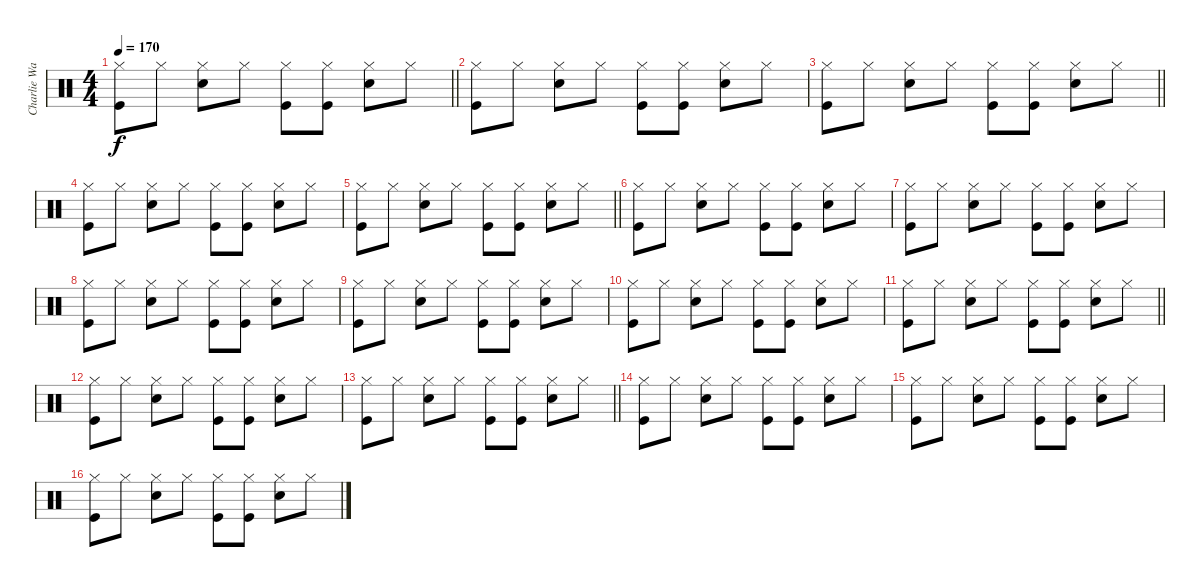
\track ("Charlie Watts" "Charlie Wa") {instrument percussion}
\staff {score}
\articulation defaults
\ts (4 4)
\tempo 170
\clef neutral
\barLineRight lightlight
\ks c
("Hi-Hat (closed)" "Kick (hit)").8{dy f} "Hi-Hat (closed)".8 ("Hi-Hat (closed)" "Snare (hit) 2").8 "Hi-Hat (closed)".8 ("Hi-Hat (closed)" "Kick (hit)").8 ("Hi-Hat (closed)" "Kick (hit)").8 ("Hi-Hat (closed)" "Snare (hit) 2").8 "Hi-Hat (closed)".8 |
("Hi-Hat (closed)" "Kick (hit)").8 "Hi-Hat (closed)".8 ("Hi-Hat (closed)" "Snare (hit) 2").8 "Hi-Hat (closed)".8 ("Hi-Hat (closed)" "Kick (hit)").8 ("Hi-Hat (closed)" "Kick (hit)").8 ("Hi-Hat (closed)" "Snare (hit) 2").8 "Hi-Hat (closed)".8 |
\barLineRight lightlight
("Hi-Hat (closed)" "Kick (hit)").8 "Hi-Hat (closed)".8 ("Hi-Hat (closed)" "Snare (hit) 2").8 "Hi-Hat (closed)".8 ("Hi-Hat (closed)" "Kick (hit)").8 ("Hi-Hat (closed)" "Kick (hit)").8 ("Hi-Hat (closed)" "Snare (hit) 2").8 "Hi-Hat (closed)".8 |
("Hi-Hat (closed)" "Kick (hit)").8 "Hi-Hat (closed)".8 ("Hi-Hat (closed)" "Snare (hit) 2").8 "Hi-Hat (closed)".8 ("Hi-Hat (closed)" "Kick (hit)").8 ("Hi-Hat (closed)" "Kick (hit)").8 ("Hi-Hat (closed)" "Snare (hit) 2").8 "Hi-Hat (closed)".8 |
\barLineRight lightlight
("Hi-Hat (closed)" "Kick (hit)").8 "Hi-Hat (closed)".8 ("Hi-Hat (closed)" "Snare (hit) 2").8 "Hi-Hat (closed)".8 ("Hi-Hat (closed)" "Kick (hit)").8 ("Hi-Hat (closed)" "Kick (hit)").8 ("Hi-Hat (closed)" "Snare (hit) 2").8 "Hi-Hat (closed)".8 |
("Hi-Hat (closed)" "Kick (hit)").8 "Hi-Hat (closed)".8 ("Hi-Hat (closed)" "Snare (hit) 2").8 "Hi-Hat (closed)".8 ("Hi-Hat (closed)" "Kick (hit)").8 ("Hi-Hat (closed)" "Kick (hit)").8 ("Hi-Hat (closed)" "Snare (hit) 2").8 "Hi-Hat (closed)".8 |
("Hi-Hat (closed)" "Kick (hit)").8 "Hi-Hat (closed)".8 ("Hi-Hat (closed)" "Snare (hit) 2").8 "Hi-Hat (closed)".8 ("Hi-Hat (closed)" "Kick (hit)").8 ("Hi-Hat (closed)" "Kick (hit)").8 ("Hi-Hat (closed)" "Snare (hit) 2").8 "Hi-Hat (closed)".8 |
("Hi-Hat (closed)" "Kick (hit)").8 "Hi-Hat (closed)".8 ("Hi-Hat (closed)" "Snare (hit) 2").8 "Hi-Hat (closed)".8 ("Hi-Hat (closed)" "Kick (hit)").8 ("Hi-Hat (closed)" "Kick (hit)").8 ("Hi-Hat (closed)" "Snare (hit) 2").8 "Hi-Hat (closed)".8 |
("Hi-Hat (closed)" "Kick (hit)").8 "Hi-Hat (closed)".8 ("Hi-Hat (closed)" "Snare (hit) 2").8 "Hi-Hat (closed)".8 ("Hi-Hat (closed)" "Kick (hit)").8 ("Hi-Hat (closed)" "Kick (hit)").8 ("Hi-Hat (closed)" "Snare (hit) 2").8 "Hi-Hat (closed)".8 |
("Hi-Hat (closed)" "Kick (hit)").8 "Hi-Hat (closed)".8 ("Hi-Hat (closed)" "Snare (hit) 2").8 "Hi-Hat (closed)".8 ("Hi-Hat (closed)" "Kick (hit)").8 ("Hi-Hat (closed)" "Kick (hit)").8 ("Hi-Hat (closed)" "Snare (hit) 2").8 "Hi-Hat (closed)".8 |
\barLineRight lightlight
("Hi-Hat (closed)" "Kick (hit)").8 "Hi-Hat (closed)".8 ("Hi-Hat (closed)" "Snare (hit) 2").8 "Hi-Hat (closed)".8 ("Hi-Hat (closed)" "Kick (hit)").8 ("Hi-Hat (closed)" "Kick (hit)").8 ("Hi-Hat (closed)" "Snare (hit) 2").8 "Hi-Hat (closed)".8 |
("Hi-Hat (closed)" "Kick (hit)").8 "Hi-Hat (closed)".8 ("Hi-Hat (closed)" "Snare (hit) 2").8 "Hi-Hat (closed)".8 ("Hi-Hat (closed)" "Kick (hit)").8 ("Hi-Hat (closed)" "Kick (hit)").8 ("Hi-Hat (closed)" "Snare (hit) 2").8 "Hi-Hat (closed)".8 |
\barLineRight lightlight
("Hi-Hat (closed)" "Kick (hit)").8 "Hi-Hat (closed)".8 ("Hi-Hat (closed)" "Snare (hit) 2").8 "Hi-Hat (closed)".8 ("Hi-Hat (closed)" "Kick (hit)").8 ("Hi-Hat (closed)" "Kick (hit)").8 ("Hi-Hat (closed)" "Snare (hit) 2").8 "Hi-Hat (closed)".8 |
("Hi-Hat (closed)" "Kick (hit)").8 "Hi-Hat (closed)".8 ("Hi-Hat (closed)" "Snare (hit) 2").8 "Hi-Hat (closed)".8 ("Hi-Hat (closed)" "Kick (hit)").8 ("Hi-Hat (closed)" "Kick (hit)").8 ("Hi-Hat (closed)" "Snare (hit) 2").8 "Hi-Hat (closed)".8 |
("Hi-Hat (closed)" "Kick (hit)").8 "Hi-Hat (closed)".8 ("Hi-Hat (closed)" "Snare (hit) 2").8 "Hi-Hat (closed)".8 ("Hi-Hat (closed)" "Kick (hit)").8 ("Hi-Hat (closed)" "Kick (hit)").8 ("Hi-Hat (closed)" "Snare (hit) 2").8 "Hi-Hat (closed)".8 |
("Hi-Hat (closed)" "Kick (hit)").8 "Hi-Hat (closed)".8 ("Hi-Hat (closed)" "Snare (hit) 2").8 "Hi-Hat (closed)".8 ("Hi-Hat (closed)" "Kick (hit)").8 ("Hi-Hat (closed)" "Kick (hit)").8 ("Hi-Hat (closed)" "Snare (hit) 2").8 "Hi-Hat (closed)".8
